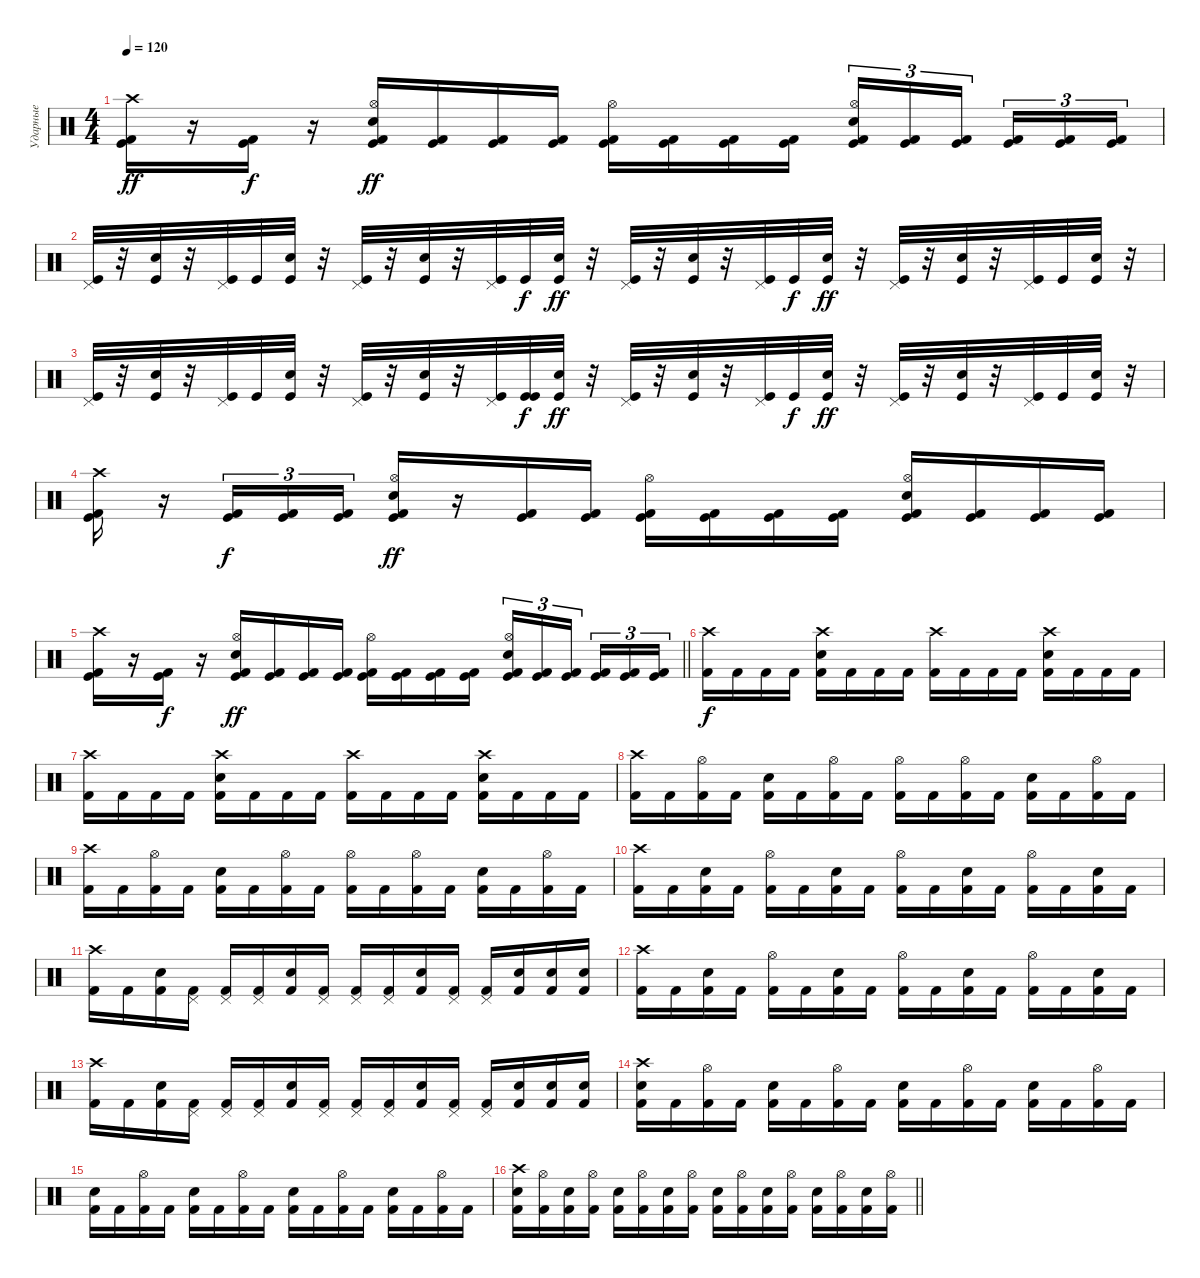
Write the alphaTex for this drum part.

\track ("Ударные" "Ударные") {instrument percussion}
\staff {score}
\articulation defaults
\ts (4 4)
\tempo 120
\clef neutral
\ks c
("Crash high (hit)" "Kick (hit)" "Kick (hit) 2").16{dy ff} r.16 ("Kick (hit)" "Kick (hit) 2").16{dy f} r.16 ("Hi-Hat (open)" "Electric Snare (hit)" "Kick (hit)" "Kick (hit) 2").16{dy ff} ("Kick (hit)" "Kick (hit) 2").16 ("Kick (hit)" "Kick (hit) 2").16 ("Kick (hit)" "Kick (hit) 2").16 ("Hi-Hat (open)" "Kick (hit)" "Kick (hit) 2").16 ("Kick (hit)" "Kick (hit) 2").16 ("Kick (hit)" "Kick (hit) 2").16 ("Kick (hit)" "Kick (hit) 2").16 ("Hi-Hat (open)" "Electric Snare (hit)" "Kick (hit)" "Kick (hit) 2").16{tu (3 2)} ("Kick (hit)" "Kick (hit) 2").16{tu (3 2)} ("Kick (hit)" "Kick (hit) 2").16{tu (3 2) beam splitsecondary} ("Kick (hit)" "Kick (hit) 2").16{tu (3 2)} ("Kick (hit)" "Kick (hit) 2").16{tu (3 2)} ("Kick (hit)" "Kick (hit) 2").16{tu (3 2)} |
("Pedal Hi-Hat (hit)" "Kick (hit)").32 r.32 ("Electric Snare (hit)" "Kick (hit)").32 r.32 ("Pedal Hi-Hat (hit)" "Kick (hit)").32 "Kick (hit)".32 ("Electric Snare (hit)" "Kick (hit)").32 r.32 ("Pedal Hi-Hat (hit)" "Kick (hit)").32 r.32 ("Electric Snare (hit)" "Kick (hit)").32 r.32 ("Pedal Hi-Hat (hit)" "Kick (hit)").32 "Kick (hit)".32{dy f} ("Electric Snare (hit)" "Kick (hit)").32{dy ff} r.32 ("Pedal Hi-Hat (hit)" "Kick (hit)").32 r.32 ("Electric Snare (hit)" "Kick (hit)").32 r.32 ("Pedal Hi-Hat (hit)" "Kick (hit)").32 "Kick (hit)".32{dy f} ("Electric Snare (hit)" "Kick (hit)").32{dy ff} r.32 ("Pedal Hi-Hat (hit)" "Kick (hit)").32 r.32 ("Electric Snare (hit)" "Kick (hit)").32 r.32 ("Pedal Hi-Hat (hit)" "Kick (hit)").32 "Kick (hit)".32 ("Electric Snare (hit)" "Kick (hit)").32 r.32 |
("Pedal Hi-Hat (hit)" "Kick (hit)").32 r.32 ("Electric Snare (hit)" "Kick (hit)").32 r.32 ("Pedal Hi-Hat (hit)" "Kick (hit)").32 "Kick (hit)".32 ("Electric Snare (hit)" "Kick (hit)").32 r.32 ("Pedal Hi-Hat (hit)" "Kick (hit)").32 r.32 ("Electric Snare (hit)" "Kick (hit)").32 r.32 ("Pedal Hi-Hat (hit)" "Kick (hit)").32 ("Kick (hit)" "Kick (hit)").32{dy f} ("Electric Snare (hit)" "Kick (hit)").32{dy ff} r.32 ("Pedal Hi-Hat (hit)" "Kick (hit)").32 r.32 ("Electric Snare (hit)" "Kick (hit)").32 r.32 ("Pedal Hi-Hat (hit)" "Kick (hit)").32 "Kick (hit)".32{dy f} ("Electric Snare (hit)" "Kick (hit)").32{dy ff} r.32 ("Pedal Hi-Hat (hit)" "Kick (hit)").32 r.32 ("Electric Snare (hit)" "Kick (hit)").32 r.32 ("Pedal Hi-Hat (hit)" "Kick (hit)").32 "Kick (hit)".32 ("Electric Snare (hit)" "Kick (hit)").32 r.32 |
("Crash high (hit)" "Kick (hit)" "Kick (hit) 2").16 r.16 ("Kick (hit)" "Kick (hit) 2").16{tu (3 2) dy f} ("Kick (hit)" "Kick (hit) 2").16{tu (3 2)} ("Kick (hit)" "Kick (hit) 2").16{tu (3 2)} ("Hi-Hat (open)" "Electric Snare (hit)" "Kick (hit)" "Kick (hit) 2").16{dy ff} r.16 ("Kick (hit)" "Kick (hit) 2").16 ("Kick (hit)" "Kick (hit) 2").16 ("Hi-Hat (open)" "Kick (hit)" "Kick (hit) 2").16 ("Kick (hit)" "Kick (hit) 2").16 ("Kick (hit)" "Kick (hit) 2").16 ("Kick (hit)" "Kick (hit) 2").16 ("Hi-Hat (open)" "Electric Snare (hit)" "Kick (hit)" "Kick (hit) 2").16 ("Kick (hit)" "Kick (hit) 2").16 ("Kick (hit)" "Kick (hit) 2").16 ("Kick (hit)" "Kick (hit) 2").16 |
\barLineRight lightlight
("Crash high (hit)" "Kick (hit)" "Kick (hit) 2").16 r.16 ("Kick (hit)" "Kick (hit) 2").16{dy f} r.16 ("Hi-Hat (open)" "Electric Snare (hit)" "Kick (hit)" "Kick (hit) 2").16{dy ff} ("Kick (hit)" "Kick (hit) 2").16 ("Kick (hit)" "Kick (hit) 2").16 ("Kick (hit)" "Kick (hit) 2").16 ("Hi-Hat (open)" "Kick (hit)" "Kick (hit) 2").16 ("Kick (hit)" "Kick (hit) 2").16 ("Kick (hit)" "Kick (hit) 2").16 ("Kick (hit)" "Kick (hit) 2").16 ("Hi-Hat (open)" "Electric Snare (hit)" "Kick (hit)" "Kick (hit) 2").16{tu (3 2)} ("Kick (hit)" "Kick (hit) 2").16{tu (3 2)} ("Kick (hit)" "Kick (hit) 2").16{tu (3 2) beam splitsecondary} ("Kick (hit)" "Kick (hit) 2").16{tu (3 2)} ("Kick (hit)" "Kick (hit) 2").16{tu (3 2)} ("Kick (hit)" "Kick (hit) 2").16{tu (3 2)} |
("Crash high (hit)" "Kick (hit) 2").16{dy f} "Kick (hit) 2".16 "Kick (hit) 2".16 "Kick (hit) 2".16 ("Crash high (hit)" "Electric Snare (hit)" "Kick (hit) 2").16 "Kick (hit) 2".16 "Kick (hit) 2".16 "Kick (hit) 2".16 ("Crash high (hit)" "Kick (hit) 2").16 "Kick (hit) 2".16 "Kick (hit) 2".16 "Kick (hit) 2".16 ("Crash high (hit)" "Electric Snare (hit)" "Kick (hit) 2").16 "Kick (hit) 2".16 "Kick (hit) 2".16 "Kick (hit) 2".16 |
("Crash high (hit)" "Kick (hit) 2").16 "Kick (hit) 2".16 "Kick (hit) 2".16 "Kick (hit) 2".16 ("Crash high (hit)" "Electric Snare (hit)" "Kick (hit) 2").16 "Kick (hit) 2".16 "Kick (hit) 2".16 "Kick (hit) 2".16 ("Crash high (hit)" "Kick (hit) 2").16 "Kick (hit) 2".16 "Kick (hit) 2".16 "Kick (hit) 2".16 ("Crash high (hit)" "Electric Snare (hit)" "Kick (hit) 2").16 "Kick (hit) 2".16 "Kick (hit) 2".16 "Kick (hit) 2".16 |
("Crash high (hit)" "Kick (hit) 2").16 "Kick (hit) 2".16 ("Hi-Hat (open)" "Kick (hit) 2").16 "Kick (hit) 2".16 ("Electric Snare (hit)" "Kick (hit) 2").16 "Kick (hit) 2".16 ("Hi-Hat (open)" "Kick (hit) 2").16 "Kick (hit) 2".16 ("Hi-Hat (open)" "Kick (hit) 2").16 "Kick (hit) 2".16 ("Hi-Hat (open)" "Kick (hit) 2").16 "Kick (hit) 2".16 ("Electric Snare (hit)" "Kick (hit) 2").16 "Kick (hit) 2".16 ("Hi-Hat (open)" "Kick (hit) 2").16 "Kick (hit) 2".16 |
("Crash high (hit)" "Kick (hit) 2").16 "Kick (hit) 2".16 ("Hi-Hat (open)" "Kick (hit) 2").16 "Kick (hit) 2".16 ("Electric Snare (hit)" "Kick (hit) 2").16 "Kick (hit) 2".16 ("Hi-Hat (open)" "Kick (hit) 2").16 "Kick (hit) 2".16 ("Hi-Hat (open)" "Kick (hit) 2").16 "Kick (hit) 2".16 ("Hi-Hat (open)" "Kick (hit) 2").16 "Kick (hit) 2".16 ("Electric Snare (hit)" "Kick (hit) 2").16 "Kick (hit) 2".16 ("Hi-Hat (open)" "Kick (hit) 2").16 "Kick (hit) 2".16 |
("Crash high (hit)" "Kick (hit) 2").16 "Kick (hit) 2".16 ("Electric Snare (hit)" "Kick (hit) 2").16 "Kick (hit) 2".16 ("Hi-Hat (open)" "Kick (hit) 2").16 "Kick (hit) 2".16 ("Electric Snare (hit)" "Kick (hit) 2").16 "Kick (hit) 2".16 ("Hi-Hat (open)" "Kick (hit) 2").16 "Kick (hit) 2".16 ("Electric Snare (hit)" "Kick (hit) 2").16 "Kick (hit) 2".16 ("Hi-Hat (open)" "Kick (hit) 2").16 "Kick (hit) 2".16 ("Electric Snare (hit)" "Kick (hit) 2").16 "Kick (hit) 2".16 |
("Crash high (hit)" "Kick (hit) 2").16 "Kick (hit) 2".16 ("Electric Snare (hit)" "Kick (hit) 2").16 ("Pedal Hi-Hat (hit)" "Kick (hit) 2").16 ("Pedal Hi-Hat (hit)" "Kick (hit) 2").16 ("Pedal Hi-Hat (hit)" "Kick (hit) 2").16 ("Electric Snare (hit)" "Kick (hit) 2").16 ("Pedal Hi-Hat (hit)" "Kick (hit) 2").16 ("Pedal Hi-Hat (hit)" "Kick (hit) 2").16 ("Pedal Hi-Hat (hit)" "Kick (hit) 2").16 ("Electric Snare (hit)" "Kick (hit) 2").16 ("Pedal Hi-Hat (hit)" "Kick (hit) 2").16 ("Pedal Hi-Hat (hit)" "Kick (hit) 2").16 ("Electric Snare (hit)" "Kick (hit) 2").16 ("Electric Snare (hit)" "Kick (hit) 2").16 ("Electric Snare (hit)" "Kick (hit) 2").16 |
("Crash high (hit)" "Kick (hit) 2").16 "Kick (hit) 2".16 ("Electric Snare (hit)" "Kick (hit) 2").16 "Kick (hit) 2".16 ("Hi-Hat (open)" "Kick (hit) 2").16 "Kick (hit) 2".16 ("Electric Snare (hit)" "Kick (hit) 2").16 "Kick (hit) 2".16 ("Hi-Hat (open)" "Kick (hit) 2").16 "Kick (hit) 2".16 ("Electric Snare (hit)" "Kick (hit) 2").16 "Kick (hit) 2".16 ("Hi-Hat (open)" "Kick (hit) 2").16 "Kick (hit) 2".16 ("Electric Snare (hit)" "Kick (hit) 2").16 "Kick (hit) 2".16 |
("Crash high (hit)" "Kick (hit) 2").16 "Kick (hit) 2".16 ("Electric Snare (hit)" "Kick (hit) 2").16 ("Pedal Hi-Hat (hit)" "Kick (hit) 2").16 ("Pedal Hi-Hat (hit)" "Kick (hit) 2").16 ("Pedal Hi-Hat (hit)" "Kick (hit) 2").16 ("Electric Snare (hit)" "Kick (hit) 2").16 ("Pedal Hi-Hat (hit)" "Kick (hit) 2").16 ("Pedal Hi-Hat (hit)" "Kick (hit) 2").16 ("Pedal Hi-Hat (hit)" "Kick (hit) 2").16 ("Electric Snare (hit)" "Kick (hit) 2").16 ("Pedal Hi-Hat (hit)" "Kick (hit) 2").16 ("Pedal Hi-Hat (hit)" "Kick (hit) 2").16 ("Electric Snare (hit)" "Kick (hit) 2").16 ("Electric Snare (hit)" "Kick (hit) 2").16 ("Electric Snare (hit)" "Kick (hit) 2").16 |
("Crash high (hit)" "Electric Snare (hit)" "Kick (hit) 2").16 "Kick (hit) 2".16 ("Hi-Hat (open)" "Kick (hit) 2").16 "Kick (hit) 2".16 ("Electric Snare (hit)" "Kick (hit) 2").16 "Kick (hit) 2".16 ("Hi-Hat (open)" "Kick (hit) 2").16 "Kick (hit) 2".16 ("Electric Snare (hit)" "Kick (hit) 2").16 "Kick (hit) 2".16 ("Hi-Hat (open)" "Kick (hit) 2").16 "Kick (hit) 2".16 ("Electric Snare (hit)" "Kick (hit) 2").16 "Kick (hit) 2".16 ("Hi-Hat (open)" "Kick (hit) 2").16 "Kick (hit) 2".16 |
("Electric Snare (hit)" "Kick (hit) 2").16 "Kick (hit) 2".16 ("Hi-Hat (open)" "Kick (hit) 2").16 "Kick (hit) 2".16 ("Electric Snare (hit)" "Kick (hit) 2").16 "Kick (hit) 2".16 ("Hi-Hat (open)" "Kick (hit) 2").16 "Kick (hit) 2".16 ("Electric Snare (hit)" "Kick (hit) 2").16 "Kick (hit) 2".16 ("Hi-Hat (open)" "Kick (hit) 2").16 "Kick (hit) 2".16 ("Electric Snare (hit)" "Kick (hit) 2").16 "Kick (hit) 2".16 ("Hi-Hat (open)" "Kick (hit) 2").16 "Kick (hit) 2".16 |
\barLineRight lightlight
("Crash high (hit)" "Electric Snare (hit)" "Kick (hit) 2").16 ("Hi-Hat (open)" "Kick (hit) 2").16 ("Electric Snare (hit)" "Kick (hit) 2").16 ("Hi-Hat (open)" "Kick (hit) 2").16 ("Electric Snare (hit)" "Kick (hit) 2").16 ("Hi-Hat (open)" "Kick (hit) 2").16 ("Electric Snare (hit)" "Kick (hit) 2").16 ("Hi-Hat (open)" "Kick (hit) 2").16 ("Electric Snare (hit)" "Kick (hit) 2").16 ("Hi-Hat (open)" "Kick (hit) 2").16 ("Electric Snare (hit)" "Kick (hit) 2").16 ("Hi-Hat (open)" "Kick (hit) 2").16 ("Electric Snare (hit)" "Kick (hit) 2").16 ("Hi-Hat (open)" "Kick (hit) 2").16 ("Electric Snare (hit)" "Kick (hit) 2").16 ("Hi-Hat (open)" "Kick (hit) 2").16
